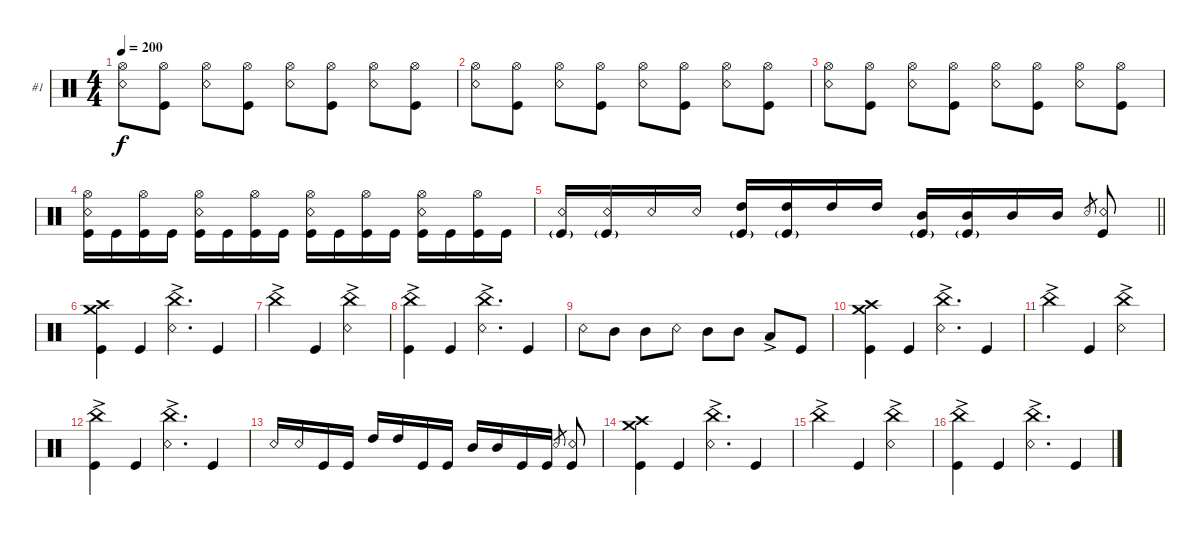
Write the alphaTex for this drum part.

\bracketExtendMode groupsimilarinstruments
\firstSystemTrackNameOrientation horizontal
\otherSystemsTrackNameOrientation horizontal
\track ("Joey Jordison" "#1") {instrument percussion}
\staff {score}
\articulation defaults
\ts (4 4)
\tempo 200
\clef neutral
\ks c
("Snare (rim shot)" "Hi-Hat (open)").8{dy f} ("Kick (hit)" "Hi-Hat (open)").8 ("Hi-Hat (open)" "Snare (rim shot)").8 ("Hi-Hat (open)" "Kick (hit)").8 ("Hi-Hat (open)" "Snare (rim shot)").8 ("Hi-Hat (open)" "Kick (hit)").8 ("Hi-Hat (open)" "Snare (rim shot)").8 ("Hi-Hat (open)" "Kick (hit)").8 |
("Snare (rim shot)" "Hi-Hat (open)").8 ("Kick (hit)" "Hi-Hat (open)").8 ("Hi-Hat (open)" "Snare (rim shot)").8 ("Hi-Hat (open)" "Kick (hit)").8 ("Hi-Hat (open)" "Snare (rim shot)").8 ("Hi-Hat (open)" "Kick (hit)").8 ("Hi-Hat (open)" "Snare (rim shot)").8 ("Hi-Hat (open)" "Kick (hit)").8 |
("Snare (rim shot)" "Hi-Hat (open)").8 ("Kick (hit)" "Hi-Hat (open)").8 ("Hi-Hat (open)" "Snare (rim shot)").8 ("Hi-Hat (open)" "Kick (hit)").8 ("Hi-Hat (open)" "Snare (rim shot)").8 ("Hi-Hat (open)" "Kick (hit)").8 ("Hi-Hat (open)" "Snare (rim shot)").8 ("Hi-Hat (open)" "Kick (hit)").8 |
("Kick (hit)" "Snare (rim shot)" "Hi-Hat (open)").16 "Kick (hit)".16 ("Kick (hit)" "Hi-Hat (open)").16 "Kick (hit)".16 ("Kick (hit)" "Snare (rim shot)" "Hi-Hat (open)").16 "Kick (hit)".16 ("Kick (hit)" "Hi-Hat (open)").16 "Kick (hit)".16 ("Kick (hit)" "Snare (rim shot)" "Hi-Hat (open)").16 "Kick (hit)".16 ("Kick (hit)" "Hi-Hat (open)").16 "Kick (hit)".16 ("Kick (hit)" "Snare (rim shot)" "Hi-Hat (open)").16 "Kick (hit)".16 ("Kick (hit)" "Hi-Hat (open)").16 "Kick (hit)".16 |
\barLineRight lightlight
("Snare (rim shot)" "Kick (hit)"{g}).16 ("Snare (rim shot)" "Kick (hit)"{g}).16 "Snare (rim shot)".16 "Snare (rim shot)".16 ("High Tom (hit)" "Kick (hit)"{g}).16 ("High Tom (hit)" "Kick (hit)"{g}).16 "High Tom (hit)".16 "High Tom (hit)".16 ("Mid Tom (hit)" "Kick (hit)"{g}).16 ("Mid Tom (hit)" "Kick (hit)"{g}).16 "Mid Tom (hit)".16 "Mid Tom (hit)".16 "Snare (rim shot)".8{gr} ("Snare (rim shot)" "Kick (hit)").8 |
("Kick (hit)" "Crash medium (hit)" "Crash high (hit)").4 "Kick (hit)".4 ("Snare (rim shot)" "China (hit)"{ac}).4{d} "Kick (hit)".4 |
"China (hit)"{ac}.4 "Kick (hit)".4 ("Snare (rim shot)" "China (hit)"{ac}).4 |
("Kick (hit)" "China (hit)"{ac}).4 "Kick (hit)".4 ("Snare (rim shot)" "China (hit)"{ac}).4{d} "Kick (hit)".4 |
"Snare (rim shot)".8 "Mid Tom (hit)".8 "Mid Tom (hit)".8 "Snare (rim shot)".8 "Mid Tom (hit)".8 "Mid Tom (hit)".8 "Low Tom (hit)"{ac}.8 "Kick (hit)".8 |
("Kick (hit)" "Crash medium (hit)" "Crash high (hit)").4 "Kick (hit)".4 ("Snare (rim shot)" "China (hit)"{ac}).4{d} "Kick (hit)".4 |
"China (hit)"{ac}.4 "Kick (hit)".4 ("Snare (rim shot)" "China (hit)"{ac}).4 |
("Kick (hit)" "China (hit)"{ac}).4 "Kick (hit)".4 ("Snare (rim shot)" "China (hit)"{ac}).4{d} "Kick (hit)".4 |
"Snare (rim shot)".16 "Snare (rim shot)".16 "Kick (hit)".16 "Kick (hit)".16 "High Tom (hit)".16 "High Tom (hit)".16 "Kick (hit)".16 "Kick (hit)".16 "Mid Tom (hit)".16 "Mid Tom (hit)".16 "Kick (hit)".16 "Kick (hit)".16 "Snare (rim shot)".8{gr} ("Snare (rim shot)" "Kick (hit)").8 |
("Kick (hit)" "Crash medium (hit)" "Crash high (hit)").4 "Kick (hit)".4 ("Snare (rim shot)" "China (hit)"{ac}).4{d} "Kick (hit)".4 |
"China (hit)"{ac}.4 "Kick (hit)".4 ("Snare (rim shot)" "China (hit)"{ac}).4 |
("Kick (hit)" "China (hit)"{ac}).4 "Kick (hit)".4 ("Snare (rim shot)" "China (hit)"{ac}).4{d} "Kick (hit)".4
